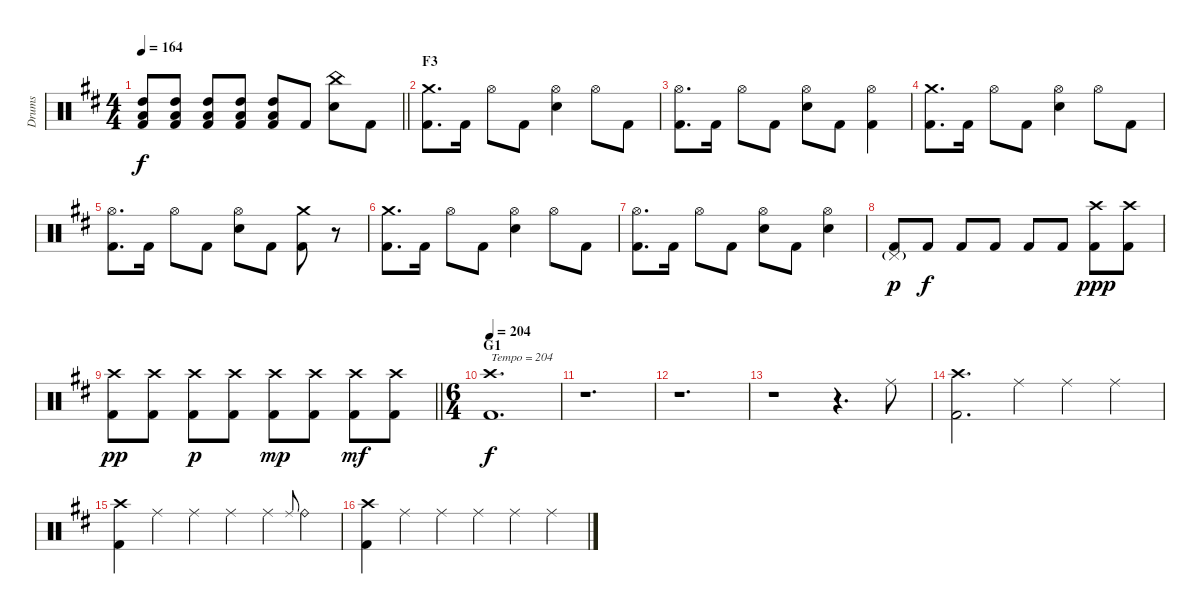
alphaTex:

\track ("Drums" "Drums") {instrument percussion}
\staff {score}
\articulation defaults
\ts (4 4)
\tempo 164
\clef neutral
\barLineRight lightlight
\ks d
("High Tom (hit)" "Low Tom (hit)" "Kick (hit) 2").8{dy f} ("High Tom (hit)" "Low Tom (hit)" "Kick (hit) 2").8 ("High Tom (hit)" "Low Tom (hit)" "Kick (hit) 2").8 ("High Tom (hit)" "Low Tom (hit)" "Kick (hit) 2").8 ("High Tom (hit)" "Low Tom (hit)" "Kick (hit) 2").8 "Kick (hit) 2".8 ("China (hit)" "Snare (hit) 2").8 "Kick (hit) 2".8 |
\section ("" "F3")
("Crash medium (hit)" "Kick (hit) 2").8{d} "Kick (hit) 2".16 "Hi-Hat (open)".8 "Kick (hit) 2".8 ("Hi-Hat (open)" "Snare (hit) 2").4 "Hi-Hat (open)".8 "Kick (hit) 2".8 |
("Hi-Hat (open)" "Kick (hit) 2").8{d} "Kick (hit) 2".16 "Hi-Hat (open)".8 "Kick (hit) 2".8 ("Hi-Hat (open)" "Snare (hit) 2").8 "Kick (hit) 2".8 ("Hi-Hat (open)" "Kick (hit) 2").4 |
("Crash medium (hit)" "Kick (hit) 2").8{d} "Kick (hit) 2".16 "Hi-Hat (open)".8 "Kick (hit) 2".8 ("Hi-Hat (open)" "Snare (hit) 2").4 "Hi-Hat (open)".8 "Kick (hit) 2".8 |
("Hi-Hat (open)" "Kick (hit) 2").8{d} "Kick (hit) 2".16 "Hi-Hat (open)".8 "Kick (hit) 2".8 ("Hi-Hat (open)" "Snare (hit) 2").8 "Kick (hit) 2".8 ("Crash medium (hit)" "Kick (hit) 2").8 r.8{volume 0} |
("Crash medium (hit)" "Kick (hit) 2").8{d volume 16} "Kick (hit) 2".16 "Hi-Hat (open)".8 "Kick (hit) 2".8 ("Hi-Hat (open)" "Snare (hit) 2").4 "Hi-Hat (open)".8 "Kick (hit) 2".8 |
("Hi-Hat (open)" "Kick (hit) 2").8{d} "Kick (hit) 2".16 "Hi-Hat (open)".8 "Kick (hit) 2".8 ("Hi-Hat (open)" "Snare (hit) 2").8 "Kick (hit) 2".8 ("Hi-Hat (open)" "Snare (hit) 2").4 |
("Pedal Hi-Hat (hit)"{g} "Kick (hit) 2").8{dy p} "Kick (hit) 2".8{dy f} "Kick (hit) 2".8 "Kick (hit) 2".8 "Kick (hit) 2".8 "Kick (hit) 2".8 ("Crash high (hit)" "Kick (hit) 2").8{dy ppp} ("Crash high (hit)" "Kick (hit) 2").8 |
\barLineRight lightlight
("Crash high (hit)" "Kick (hit) 2").8{dy pp} ("Crash high (hit)" "Kick (hit) 2").8 ("Crash high (hit)" "Kick (hit) 2").8{dy p} ("Crash high (hit)" "Kick (hit) 2").8 ("Crash high (hit)" "Kick (hit) 2").8{dy mp} ("Crash high (hit)" "Kick (hit) 2").8 ("Crash high (hit)" "Kick (hit) 2").8{dy mf} ("Crash high (hit)" "Kick (hit) 2").8 |
\ts (6 4)
\section ("" "G1")
\tempo 204
("Crash high (hit)" "Kick (hit) 2").1{d txt "Tempo = 204" dy f} |
r.1{d} |
r.1{d} |
r.1 r.4{d} "Ride (middle)".8 |
("Crash high (hit)" "Kick (hit) 2").2{d} "Ride (middle)".4 "Ride (middle)".4 "Ride (middle)".4 |
("Crash high (hit)" "Kick (hit) 2").4 "Ride (middle)".4 "Ride (middle)".4 "Ride (middle)".4 "Ride (middle)".4 "Ride (middle)".8{gr onbeat} "Ride (bell)".4 |
("Crash high (hit)" "Kick (hit) 2").4 "Ride (middle)".4 "Ride (middle)".4 "Ride (middle)".4 "Ride (middle)".4 "Ride (middle)".4
